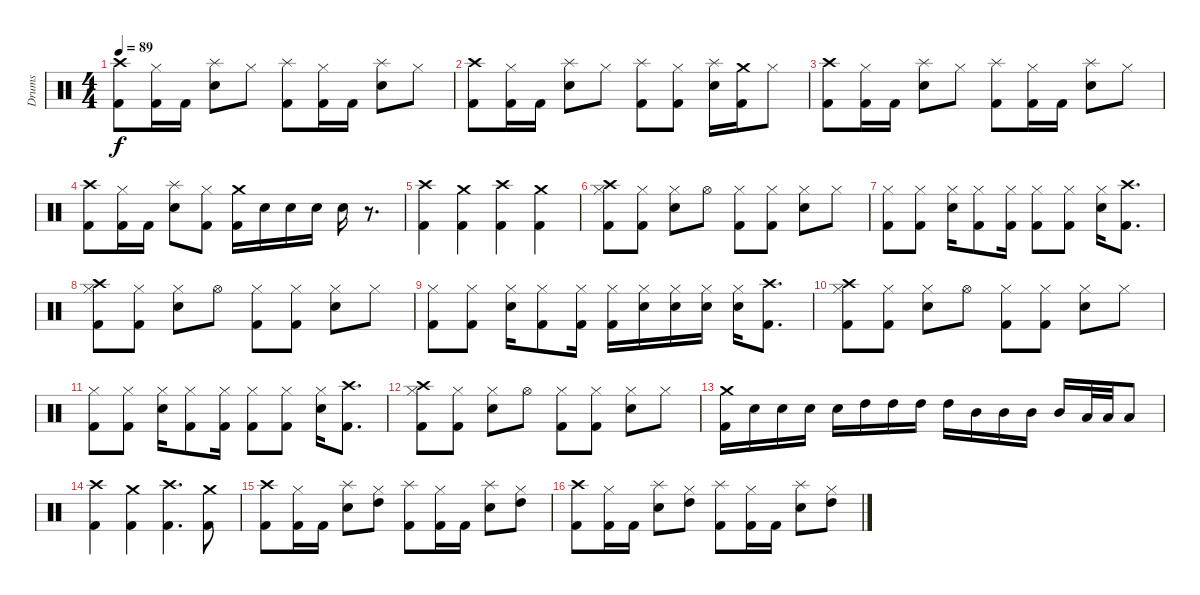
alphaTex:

\track ("Drums" "Drums") {instrument percussion}
\staff {score}
\articulation defaults
\ts (4 4)
\tempo 89
\clef neutral
\ks c
("Kick (hit) 2" "Crash high (hit)").8{dy f} ("Kick (hit) 2" "Hi-Hat (closed)").16 "Kick (hit) 2".16 ("Snare (hit) 2" "Splash (hit)").8 "Hi-Hat (closed)".8 ("Kick (hit) 2" "Splash (hit)").8 ("Kick (hit) 2" "Hi-Hat (closed)").16 "Kick (hit) 2".16 ("Snare (hit) 2" "Splash (hit)").8 "Hi-Hat (closed)".8 |
("Kick (hit) 2" "Crash high (hit)").8 ("Kick (hit) 2" "Hi-Hat (closed)").16 "Kick (hit) 2".16 ("Snare (hit) 2" "Splash (hit)").8 "Hi-Hat (closed)".8 ("Kick (hit) 2" "Splash (hit)").8 ("Kick (hit) 2" "Hi-Hat (closed)").8 ("Snare (hit) 2" "Splash (hit)").16 ("Kick (hit) 2" "Crash medium (hit)").16 "Hi-Hat (closed)".8 |
("Kick (hit) 2" "Crash high (hit)").8 ("Kick (hit) 2" "Hi-Hat (closed)").16 "Kick (hit) 2".16 ("Snare (hit) 2" "Splash (hit)").8 "Hi-Hat (closed)".8 ("Kick (hit) 2" "Splash (hit)").8 ("Kick (hit) 2" "Hi-Hat (closed)").16 "Kick (hit) 2".16 ("Snare (hit) 2" "Splash (hit)").8 "Hi-Hat (closed)".8 |
("Kick (hit) 2" "Crash high (hit)").8 ("Kick (hit) 2" "Hi-Hat (closed)").16 "Kick (hit) 2".16 ("Snare (hit) 2" "Splash (hit)").8 ("Kick (hit) 2" "Hi-Hat (closed)").8 ("Kick (hit) 2" "Crash medium (hit)").16 "Snare (hit) 2".16 "Snare (hit) 2".16 "Snare (hit) 2".16 "Snare (hit) 2".16 r.8{d} |
("Kick (hit) 2" "Crash high (hit)").4 ("Kick (hit) 2" "Crash medium (hit)").4 ("Kick (hit) 2" "Crash high (hit)").4 ("Kick (hit) 2" "Crash medium (hit)").4 |
("Kick (hit) 2" "Hi-Hat (closed)" "Crash high (hit)").8 ("Kick (hit) 2" "Hi-Hat (closed)").8 ("Snare (hit) 2" "Hi-Hat (closed)").8 "Hi-Hat (open)".8 ("Kick (hit) 2" "Hi-Hat (closed)").8 ("Kick (hit) 2" "Hi-Hat (closed)").8 ("Snare (hit) 2" "Hi-Hat (closed)").8 "Hi-Hat (closed)".8 |
("Kick (hit) 2" "Hi-Hat (closed)").8 ("Kick (hit) 2" "Hi-Hat (closed)").8 ("Snare (hit) 2" "Hi-Hat (closed)").16 ("Kick (hit) 2" "Hi-Hat (closed)").8 ("Kick (hit) 2" "Hi-Hat (closed)").16 ("Kick (hit) 2" "Hi-Hat (closed)").8 ("Kick (hit) 2" "Hi-Hat (closed)").8 ("Snare (hit) 2" "Hi-Hat (closed)").16 ("Kick (hit) 2" "Crash high (hit)").8{d} |
("Kick (hit) 2" "Hi-Hat (closed)" "Crash high (hit)").8 ("Kick (hit) 2" "Hi-Hat (closed)").8 ("Snare (hit) 2" "Hi-Hat (closed)").8 "Hi-Hat (open)".8 ("Kick (hit) 2" "Hi-Hat (closed)").8 ("Kick (hit) 2" "Hi-Hat (closed)").8 ("Snare (hit) 2" "Hi-Hat (closed)").8 "Hi-Hat (closed)".8 |
("Kick (hit) 2" "Hi-Hat (closed)").8 ("Kick (hit) 2" "Hi-Hat (closed)").8 ("Snare (hit) 2" "Hi-Hat (closed)").16 ("Kick (hit) 2" "Hi-Hat (closed)").8 ("Kick (hit) 2" "Hi-Hat (closed)").16 ("Kick (hit) 2" "Hi-Hat (closed)").16 ("Snare (hit) 2" "Hi-Hat (closed)").16 ("Snare (hit) 2" "Hi-Hat (closed)").16 ("Snare (hit) 2" "Hi-Hat (closed)").16 ("Snare (hit) 2" "Hi-Hat (closed)").16 ("Kick (hit) 2" "Crash high (hit)").8{d} |
("Kick (hit) 2" "Hi-Hat (closed)" "Crash high (hit)").8 ("Kick (hit) 2" "Hi-Hat (closed)").8 ("Snare (hit) 2" "Hi-Hat (closed)").8 "Hi-Hat (open)".8 ("Kick (hit) 2" "Hi-Hat (closed)").8 ("Kick (hit) 2" "Hi-Hat (closed)").8 ("Snare (hit) 2" "Hi-Hat (closed)").8 "Hi-Hat (closed)".8 |
("Kick (hit) 2" "Hi-Hat (closed)").8 ("Kick (hit) 2" "Hi-Hat (closed)").8 ("Snare (hit) 2" "Hi-Hat (closed)").16 ("Kick (hit) 2" "Hi-Hat (closed)").8 ("Kick (hit) 2" "Hi-Hat (closed)").16 ("Kick (hit) 2" "Hi-Hat (closed)").8 ("Kick (hit) 2" "Hi-Hat (closed)").8 ("Snare (hit) 2" "Hi-Hat (closed)").16 ("Kick (hit) 2" "Crash high (hit)").8{d} |
("Kick (hit) 2" "Hi-Hat (closed)" "Crash high (hit)").8 ("Kick (hit) 2" "Hi-Hat (closed)").8 ("Snare (hit) 2" "Hi-Hat (closed)").8 "Hi-Hat (open)".8 ("Kick (hit) 2" "Hi-Hat (closed)").8 ("Kick (hit) 2" "Hi-Hat (closed)").8 ("Snare (hit) 2" "Hi-Hat (closed)").8 "Hi-Hat (closed)".8 |
("Kick (hit) 2" "Crash medium (hit)").16 "Snare (hit) 2".16 "Snare (hit) 2".16 "Snare (hit) 2".16 "Snare (hit) 2".16 "High Tom (hit)".16 "High Tom (hit)".16 "High Tom (hit)".16 "High Tom (hit)".16 "Mid Tom (hit)".16 "Mid Tom (hit)".16 "Mid Tom (hit)".16 "Mid Tom (hit)".16 "Low Tom (hit)".32 "Low Tom (hit)".32 "Low Tom (hit)".8 |
("Kick (hit) 2" "Crash high (hit)").4 ("Kick (hit) 2" "Crash medium (hit)").4 ("Kick (hit) 2" "Crash high (hit)").4{d} ("Kick (hit) 2" "Crash medium (hit)").8 |
("Kick (hit) 2" "Crash high (hit)").8 ("Kick (hit) 2" "Hi-Hat (closed)").16 "Kick (hit) 2".16 ("Snare (hit) 2" "Splash (hit)").8 ("Hi-Hat (closed)" "High Tom (hit)").8 ("Kick (hit) 2" "Splash (hit)").8 ("Kick (hit) 2" "Hi-Hat (closed)").16 "Kick (hit) 2".16 ("Snare (hit) 2" "Splash (hit)").8 ("Hi-Hat (closed)" "High Tom (hit)").8 |
("Kick (hit) 2" "Crash high (hit)").8 ("Kick (hit) 2" "Hi-Hat (closed)").16 "Kick (hit) 2".16 ("Snare (hit) 2" "Splash (hit)").8 ("Hi-Hat (closed)" "High Tom (hit)").8 ("Kick (hit) 2" "Splash (hit)").8 ("Kick (hit) 2" "Hi-Hat (closed)").16 "Kick (hit) 2".16 ("Snare (hit) 2" "Splash (hit)").8 ("Hi-Hat (closed)" "High Tom (hit)").8
